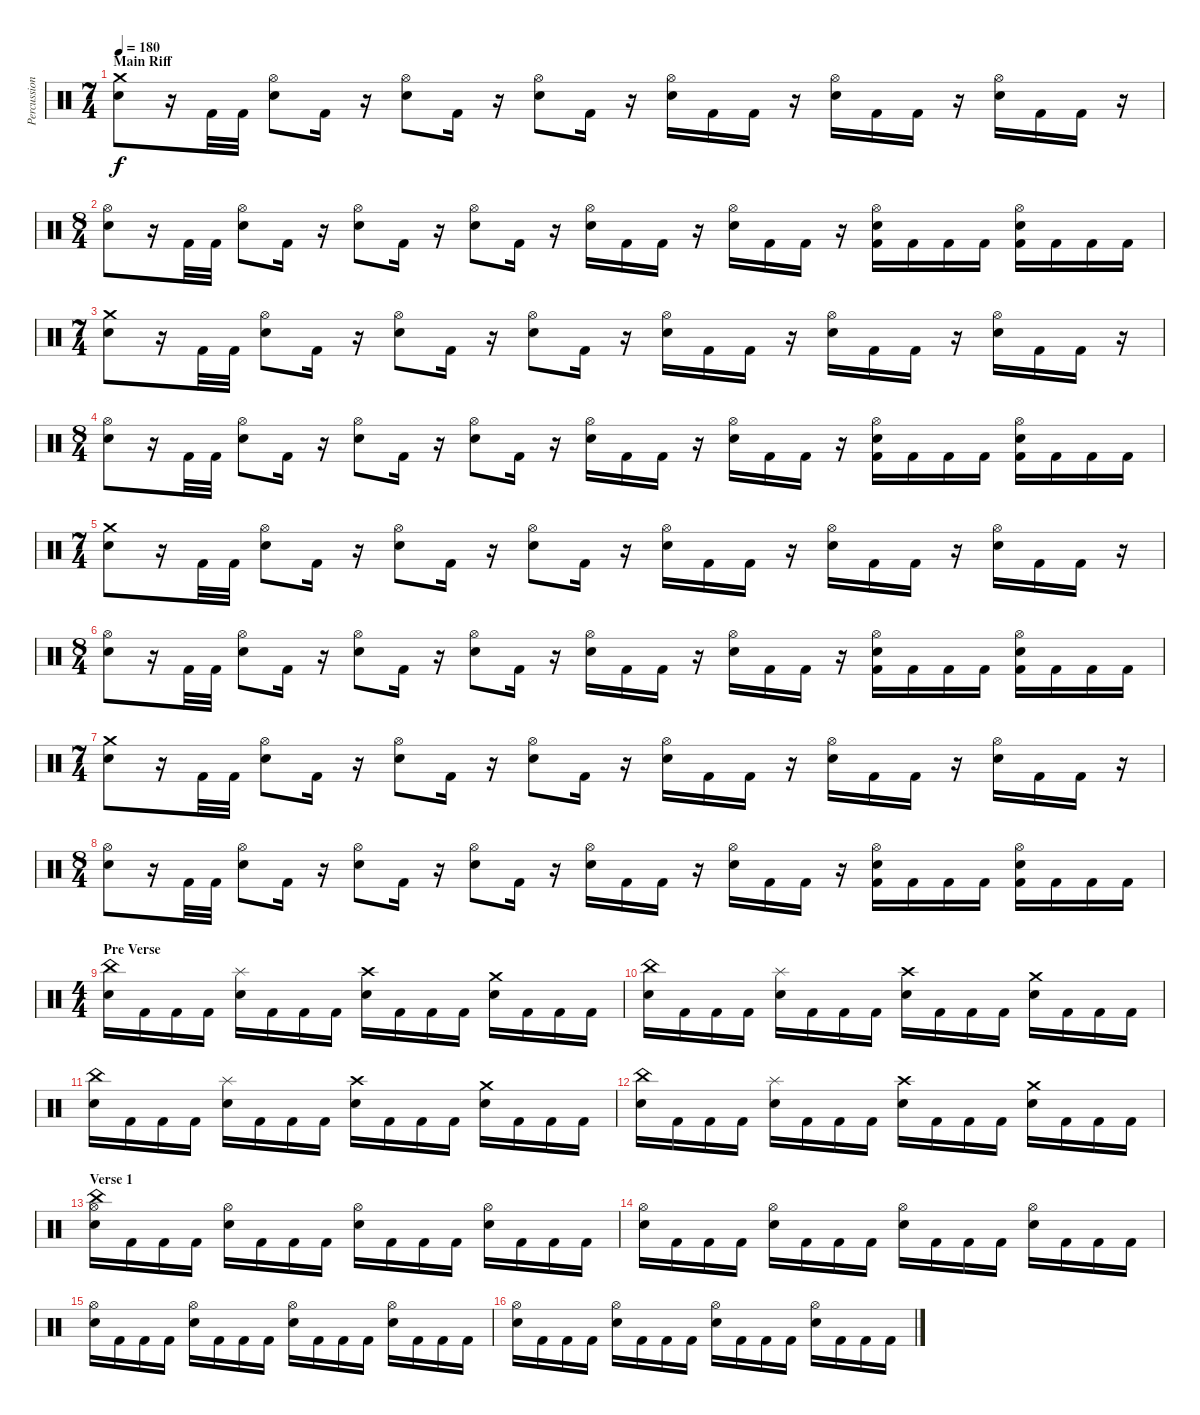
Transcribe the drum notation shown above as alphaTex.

\track ("Percussions" "Percussion") {instrument percussion}
\staff {score}
\articulation defaults
\ts (7 4)
\section ("" "Main Riff")
\tempo 180
\clef neutral
\ks c
("Crash medium (hit)" "Electric Snare (hit)").8{dy f} r.16 "Kick (hit) 2".32 "Kick (hit) 2".32 ("Hi-Hat (open)" "Electric Snare (hit)").8 "Kick (hit) 2".16 r.16 ("Hi-Hat (open)" "Electric Snare (hit)").8 "Kick (hit) 2".16 r.16 ("Hi-Hat (open)" "Electric Snare (hit)").8 "Kick (hit) 2".16 r.16 ("Hi-Hat (open)" "Electric Snare (hit)").16 "Kick (hit) 2".16 "Kick (hit) 2".16 r.16 ("Hi-Hat (open)" "Electric Snare (hit)").16 "Kick (hit) 2".16 "Kick (hit) 2".16 r.16 ("Hi-Hat (open)" "Electric Snare (hit)").16 "Kick (hit) 2".16 "Kick (hit) 2".16 r.16 |
\ts (8 4)
("Hi-Hat (open)" "Electric Snare (hit)").8 r.16 "Kick (hit) 2".32 "Kick (hit) 2".32 ("Hi-Hat (open)" "Electric Snare (hit)").8 "Kick (hit) 2".16 r.16 ("Hi-Hat (open)" "Electric Snare (hit)").8 "Kick (hit) 2".16 r.16 ("Hi-Hat (open)" "Electric Snare (hit)").8 "Kick (hit) 2".16 r.16 ("Hi-Hat (open)" "Electric Snare (hit)").16 "Kick (hit) 2".16 "Kick (hit) 2".16 r.16 ("Hi-Hat (open)" "Electric Snare (hit)").16 "Kick (hit) 2".16 "Kick (hit) 2".16 r.16 ("Kick (hit) 2" "Hi-Hat (open)" "Electric Snare (hit)").16 "Kick (hit) 2".16 "Kick (hit) 2".16 "Kick (hit) 2".16 ("Hi-Hat (open)" "Electric Snare (hit)" "Kick (hit) 2").16 "Kick (hit) 2".16 "Kick (hit) 2".16 "Kick (hit) 2".16 |
\ts (7 4)
("Crash medium (hit)" "Electric Snare (hit)").8 r.16 "Kick (hit) 2".32 "Kick (hit) 2".32 ("Hi-Hat (open)" "Electric Snare (hit)").8 "Kick (hit) 2".16 r.16 ("Hi-Hat (open)" "Electric Snare (hit)").8 "Kick (hit) 2".16 r.16 ("Hi-Hat (open)" "Electric Snare (hit)").8 "Kick (hit) 2".16 r.16 ("Hi-Hat (open)" "Electric Snare (hit)").16 "Kick (hit) 2".16 "Kick (hit) 2".16 r.16 ("Hi-Hat (open)" "Electric Snare (hit)").16 "Kick (hit) 2".16 "Kick (hit) 2".16 r.16 ("Hi-Hat (open)" "Electric Snare (hit)").16 "Kick (hit) 2".16 "Kick (hit) 2".16 r.16 |
\ts (8 4)
("Hi-Hat (open)" "Electric Snare (hit)").8 r.16 "Kick (hit) 2".32 "Kick (hit) 2".32 ("Hi-Hat (open)" "Electric Snare (hit)").8 "Kick (hit) 2".16 r.16 ("Hi-Hat (open)" "Electric Snare (hit)").8 "Kick (hit) 2".16 r.16 ("Hi-Hat (open)" "Electric Snare (hit)").8 "Kick (hit) 2".16 r.16 ("Hi-Hat (open)" "Electric Snare (hit)").16 "Kick (hit) 2".16 "Kick (hit) 2".16 r.16 ("Hi-Hat (open)" "Electric Snare (hit)").16 "Kick (hit) 2".16 "Kick (hit) 2".16 r.16 ("Kick (hit) 2" "Hi-Hat (open)" "Electric Snare (hit)").16 "Kick (hit) 2".16 "Kick (hit) 2".16 "Kick (hit) 2".16 ("Hi-Hat (open)" "Electric Snare (hit)" "Kick (hit) 2").16 "Kick (hit) 2".16 "Kick (hit) 2".16 "Kick (hit) 2".16 |
\ts (7 4)
("Crash medium (hit)" "Electric Snare (hit)").8 r.16 "Kick (hit) 2".32 "Kick (hit) 2".32 ("Hi-Hat (open)" "Electric Snare (hit)").8 "Kick (hit) 2".16 r.16 ("Hi-Hat (open)" "Electric Snare (hit)").8 "Kick (hit) 2".16 r.16 ("Hi-Hat (open)" "Electric Snare (hit)").8 "Kick (hit) 2".16 r.16 ("Hi-Hat (open)" "Electric Snare (hit)").16 "Kick (hit) 2".16 "Kick (hit) 2".16 r.16 ("Hi-Hat (open)" "Electric Snare (hit)").16 "Kick (hit) 2".16 "Kick (hit) 2".16 r.16 ("Hi-Hat (open)" "Electric Snare (hit)").16 "Kick (hit) 2".16 "Kick (hit) 2".16 r.16 |
\ts (8 4)
("Hi-Hat (open)" "Electric Snare (hit)").8 r.16 "Kick (hit) 2".32 "Kick (hit) 2".32 ("Hi-Hat (open)" "Electric Snare (hit)").8 "Kick (hit) 2".16 r.16 ("Hi-Hat (open)" "Electric Snare (hit)").8 "Kick (hit) 2".16 r.16 ("Hi-Hat (open)" "Electric Snare (hit)").8 "Kick (hit) 2".16 r.16 ("Hi-Hat (open)" "Electric Snare (hit)").16 "Kick (hit) 2".16 "Kick (hit) 2".16 r.16 ("Hi-Hat (open)" "Electric Snare (hit)").16 "Kick (hit) 2".16 "Kick (hit) 2".16 r.16 ("Kick (hit) 2" "Hi-Hat (open)" "Electric Snare (hit)").16 "Kick (hit) 2".16 "Kick (hit) 2".16 "Kick (hit) 2".16 ("Hi-Hat (open)" "Electric Snare (hit)" "Kick (hit) 2").16 "Kick (hit) 2".16 "Kick (hit) 2".16 "Kick (hit) 2".16 |
\ts (7 4)
("Crash medium (hit)" "Electric Snare (hit)").8 r.16 "Kick (hit) 2".32 "Kick (hit) 2".32 ("Hi-Hat (open)" "Electric Snare (hit)").8 "Kick (hit) 2".16 r.16 ("Hi-Hat (open)" "Electric Snare (hit)").8 "Kick (hit) 2".16 r.16 ("Hi-Hat (open)" "Electric Snare (hit)").8 "Kick (hit) 2".16 r.16 ("Hi-Hat (open)" "Electric Snare (hit)").16 "Kick (hit) 2".16 "Kick (hit) 2".16 r.16 ("Hi-Hat (open)" "Electric Snare (hit)").16 "Kick (hit) 2".16 "Kick (hit) 2".16 r.16 ("Hi-Hat (open)" "Electric Snare (hit)").16 "Kick (hit) 2".16 "Kick (hit) 2".16 r.16 |
\ts (8 4)
("Hi-Hat (open)" "Electric Snare (hit)").8 r.16 "Kick (hit) 2".32 "Kick (hit) 2".32 ("Hi-Hat (open)" "Electric Snare (hit)").8 "Kick (hit) 2".16 r.16 ("Hi-Hat (open)" "Electric Snare (hit)").8 "Kick (hit) 2".16 r.16 ("Hi-Hat (open)" "Electric Snare (hit)").8 "Kick (hit) 2".16 r.16 ("Hi-Hat (open)" "Electric Snare (hit)").16 "Kick (hit) 2".16 "Kick (hit) 2".16 r.16 ("Hi-Hat (open)" "Electric Snare (hit)").16 "Kick (hit) 2".16 "Kick (hit) 2".16 r.16 ("Kick (hit) 2" "Hi-Hat (open)" "Electric Snare (hit)").16 "Kick (hit) 2".16 "Kick (hit) 2".16 "Kick (hit) 2".16 ("Hi-Hat (open)" "Electric Snare (hit)" "Kick (hit) 2").16 "Kick (hit) 2".16 "Kick (hit) 2".16 "Kick (hit) 2".16 |
\ts (4 4)
\section ("" "Pre Verse")
("China (hit)" "Electric Snare (hit)").16 "Kick (hit) 2".16 "Kick (hit) 2".16 "Kick (hit) 2".16 ("Splash (hit)" "Electric Snare (hit)").16 "Kick (hit) 2".16 "Kick (hit) 2".16 "Kick (hit) 2".16 ("Crash high (hit)" "Electric Snare (hit)").16 "Kick (hit) 2".16 "Kick (hit) 2".16 "Kick (hit) 2".16 ("Crash medium (hit)" "Electric Snare (hit)").16 "Kick (hit) 2".16 "Kick (hit) 2".16 "Kick (hit) 2".16 |
("China (hit)" "Electric Snare (hit)").16 "Kick (hit) 2".16 "Kick (hit) 2".16 "Kick (hit) 2".16 ("Splash (hit)" "Electric Snare (hit)").16 "Kick (hit) 2".16 "Kick (hit) 2".16 "Kick (hit) 2".16 ("Crash high (hit)" "Electric Snare (hit)").16 "Kick (hit) 2".16 "Kick (hit) 2".16 "Kick (hit) 2".16 ("Crash medium (hit)" "Electric Snare (hit)").16 "Kick (hit) 2".16 "Kick (hit) 2".16 "Kick (hit) 2".16 |
("China (hit)" "Electric Snare (hit)").16 "Kick (hit) 2".16 "Kick (hit) 2".16 "Kick (hit) 2".16 ("Splash (hit)" "Electric Snare (hit)").16 "Kick (hit) 2".16 "Kick (hit) 2".16 "Kick (hit) 2".16 ("Crash high (hit)" "Electric Snare (hit)").16 "Kick (hit) 2".16 "Kick (hit) 2".16 "Kick (hit) 2".16 ("Crash medium (hit)" "Electric Snare (hit)").16 "Kick (hit) 2".16 "Kick (hit) 2".16 "Kick (hit) 2".16 |
("China (hit)" "Electric Snare (hit)").16 "Kick (hit) 2".16 "Kick (hit) 2".16 "Kick (hit) 2".16 ("Splash (hit)" "Electric Snare (hit)").16 "Kick (hit) 2".16 "Kick (hit) 2".16 "Kick (hit) 2".16 ("Crash high (hit)" "Electric Snare (hit)").16 "Kick (hit) 2".16 "Kick (hit) 2".16 "Kick (hit) 2".16 ("Crash medium (hit)" "Electric Snare (hit)").16 "Kick (hit) 2".16 "Kick (hit) 2".16 "Kick (hit) 2".16 |
\section ("" "Verse 1")
("China (hit)" "Hi-Hat (open)" "Electric Snare (hit)").16 "Kick (hit) 2".16 "Kick (hit) 2".16 "Kick (hit) 2".16 ("Hi-Hat (open)" "Electric Snare (hit)").16 "Kick (hit) 2".16 "Kick (hit) 2".16 "Kick (hit) 2".16 ("Hi-Hat (open)" "Electric Snare (hit)").16 "Kick (hit) 2".16 "Kick (hit) 2".16 "Kick (hit) 2".16 ("Hi-Hat (open)" "Electric Snare (hit)").16 "Kick (hit) 2".16 "Kick (hit) 2".16 "Kick (hit) 2".16 |
("Hi-Hat (open)" "Electric Snare (hit)").16 "Kick (hit) 2".16 "Kick (hit) 2".16 "Kick (hit) 2".16 ("Hi-Hat (open)" "Electric Snare (hit)").16 "Kick (hit) 2".16 "Kick (hit) 2".16 "Kick (hit) 2".16 ("Hi-Hat (open)" "Electric Snare (hit)").16 "Kick (hit) 2".16 "Kick (hit) 2".16 "Kick (hit) 2".16 ("Hi-Hat (open)" "Electric Snare (hit)").16 "Kick (hit) 2".16 "Kick (hit) 2".16 "Kick (hit) 2".16 |
("Hi-Hat (open)" "Electric Snare (hit)").16 "Kick (hit) 2".16 "Kick (hit) 2".16 "Kick (hit) 2".16 ("Hi-Hat (open)" "Electric Snare (hit)").16 "Kick (hit) 2".16 "Kick (hit) 2".16 "Kick (hit) 2".16 ("Hi-Hat (open)" "Electric Snare (hit)").16 "Kick (hit) 2".16 "Kick (hit) 2".16 "Kick (hit) 2".16 ("Hi-Hat (open)" "Electric Snare (hit)").16 "Kick (hit) 2".16 "Kick (hit) 2".16 "Kick (hit) 2".16 |
("Hi-Hat (open)" "Electric Snare (hit)").16 "Kick (hit) 2".16 "Kick (hit) 2".16 "Kick (hit) 2".16 ("Hi-Hat (open)" "Electric Snare (hit)").16 "Kick (hit) 2".16 "Kick (hit) 2".16 "Kick (hit) 2".16 ("Hi-Hat (open)" "Electric Snare (hit)").16 "Kick (hit) 2".16 "Kick (hit) 2".16 "Kick (hit) 2".16 ("Hi-Hat (open)" "Electric Snare (hit)").16 "Kick (hit) 2".16 "Kick (hit) 2".16 "Kick (hit) 2".16
